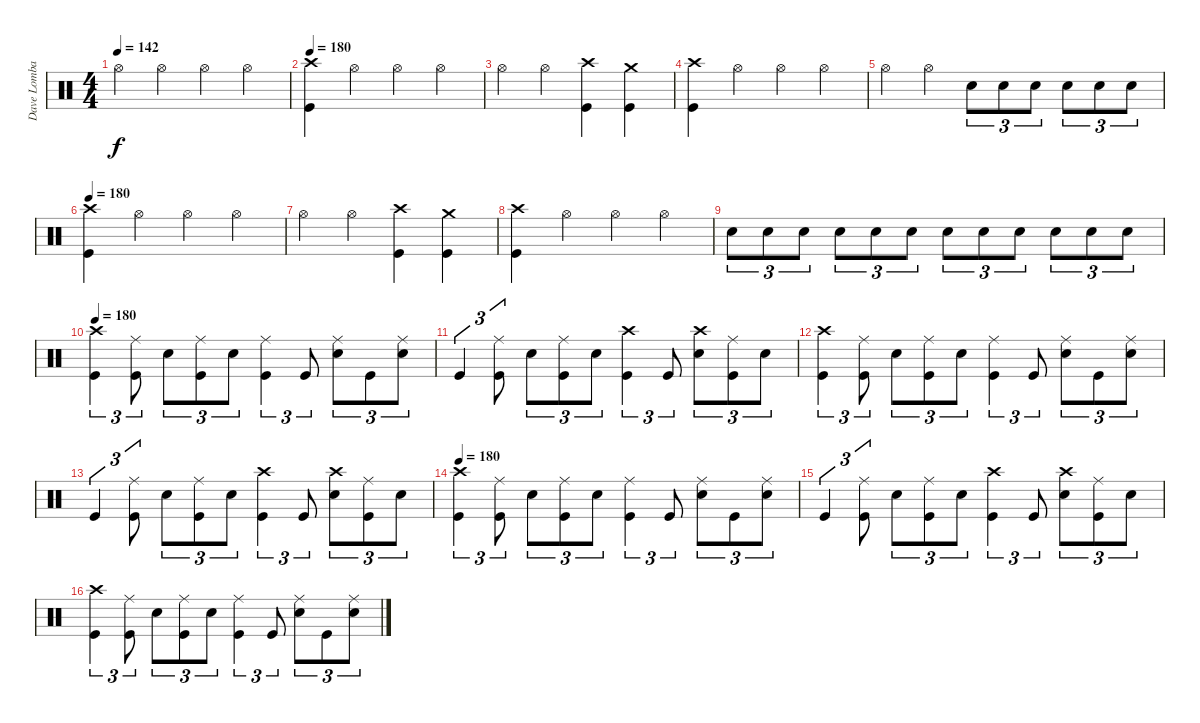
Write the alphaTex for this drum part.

\track ("Dave Lombardo" "Dave Lomba") {instrument percussion}
\staff {score}
\articulation defaults
\ts (4 4)
\tempo 142
\tempo 180
\tempo 142
\clef neutral
\ks c "Hi-Hat (open)".4{dy f} "Hi-Hat (open)".4 "Hi-Hat (open)".4 "Hi-Hat (open)".4
|
\tempo 180
("Kick (hit)" "Crash high (hit)").4 "Hi-Hat (open)".4 "Hi-Hat (open)".4 "Hi-Hat (open)".4 |
"Hi-Hat (open)".4 "Hi-Hat (open)".4 ("Kick (hit)" "Crash high (hit)").4 ("Kick (hit)" "Crash medium (hit)").4 |
("Crash high (hit)" "Kick (hit)").4 "Hi-Hat (open)".4 "Hi-Hat (open)".4 "Hi-Hat (open)".4 |
"Hi-Hat (open)".4 "Hi-Hat (open)".4 "Snare (hit) 2".8{tu (3 2)} "Snare (hit) 2".8{tu (3 2)} "Snare (hit) 2".8{tu (3 2)} "Snare (hit) 2".8{tu (3 2)} "Snare (hit) 2".8{tu (3 2)} "Snare (hit) 2".8{tu (3 2)} |
\tempo 180
("Kick (hit)" "Crash high (hit)").4 "Hi-Hat (open)".4 "Hi-Hat (open)".4 "Hi-Hat (open)".4 |
"Hi-Hat (open)".4 "Hi-Hat (open)".4 ("Kick (hit)" "Crash high (hit)").4 ("Kick (hit)" "Crash medium (hit)").4 |
("Kick (hit)" "Crash high (hit)").4 "Hi-Hat (open)".4 "Hi-Hat (open)".4 "Hi-Hat (open)".4 |
"Snare (hit) 2".8{tu (3 2)} "Snare (hit) 2".8{tu (3 2)} "Snare (hit) 2".8{tu (3 2)} "Snare (hit) 2".8{tu (3 2)} "Snare (hit) 2".8{tu (3 2)} "Snare (hit) 2".8{tu (3 2)} "Snare (hit) 2".8{tu (3 2)} "Snare (hit) 2".8{tu (3 2)} "Snare (hit) 2".8{tu (3 2)} "Snare (hit) 2".8{tu (3 2)} "Snare (hit) 2".8{tu (3 2)} "Snare (hit) 2".8{tu (3 2)} |
\tempo 180
("Crash high (hit)" "Kick (hit)").4{tu (3 2)} ("Ride (middle)" "Kick (hit)").8{tu (3 2)} "Snare (hit) 2".8{tu (3 2)} ("Ride (middle)" "Kick (hit)").8{tu (3 2)} "Snare (hit) 2".8{tu (3 2)} ("Ride (middle)" "Kick (hit)").4{tu (3 2)} "Kick (hit)".8{tu (3 2)} ("Ride (middle)" "Snare (hit) 2").8{tu (3 2)} "Kick (hit)".8{tu (3 2)} ("Ride (middle)" "Snare (hit) 2").8{tu (3 2)} |
"Kick (hit)".4{tu (3 2)} ("Ride (middle)" "Kick (hit)").8{tu (3 2)} "Snare (hit) 2".8{tu (3 2)} ("Ride (middle)" "Kick (hit)").8{tu (3 2)} "Snare (hit) 2".8{tu (3 2)} ("Crash high (hit)" "Kick (hit)").4{tu (3 2)} "Kick (hit)".8{tu (3 2)} ("Crash high (hit)" "Snare (hit) 2").8{tu (3 2)} ("Ride (middle)" "Kick (hit)").8{tu (3 2)} "Snare (hit) 2".8{tu (3 2)} |
("Crash high (hit)" "Kick (hit)").4{tu (3 2)} ("Ride (middle)" "Kick (hit)").8{tu (3 2)} "Snare (hit) 2".8{tu (3 2)} ("Ride (middle)" "Kick (hit)").8{tu (3 2)} "Snare (hit) 2".8{tu (3 2)} ("Ride (middle)" "Kick (hit)").4{tu (3 2)} "Kick (hit)".8{tu (3 2)} ("Ride (middle)" "Snare (hit) 2").8{tu (3 2)} "Kick (hit)".8{tu (3 2)} ("Ride (middle)" "Snare (hit) 2").8{tu (3 2)} |
"Kick (hit)".4{tu (3 2)} ("Ride (middle)" "Kick (hit)").8{tu (3 2)} "Snare (hit) 2".8{tu (3 2)} ("Ride (middle)" "Kick (hit)").8{tu (3 2)} "Snare (hit) 2".8{tu (3 2)} ("Crash high (hit)" "Kick (hit)").4{tu (3 2)} "Kick (hit)".8{tu (3 2)} ("Crash high (hit)" "Snare (hit) 2").8{tu (3 2)} ("Ride (middle)" "Kick (hit)").8{tu (3 2)} "Snare (hit) 2".8{tu (3 2)} |
\tempo 180
("Crash high (hit)" "Kick (hit)").4{tu (3 2)} ("Ride (middle)" "Kick (hit)").8{tu (3 2)} "Snare (hit) 2".8{tu (3 2)} ("Ride (middle)" "Kick (hit)").8{tu (3 2)} "Snare (hit) 2".8{tu (3 2)} ("Ride (middle)" "Kick (hit)").4{tu (3 2)} "Kick (hit)".8{tu (3 2)} ("Ride (middle)" "Snare (hit) 2").8{tu (3 2)} "Kick (hit)".8{tu (3 2)} ("Ride (middle)" "Snare (hit) 2").8{tu (3 2)} |
"Kick (hit)".4{tu (3 2)} ("Ride (middle)" "Kick (hit)").8{tu (3 2)} "Snare (hit) 2".8{tu (3 2)} ("Ride (middle)" "Kick (hit)").8{tu (3 2)} "Snare (hit) 2".8{tu (3 2)} ("Crash high (hit)" "Kick (hit)").4{tu (3 2)} "Kick (hit)".8{tu (3 2)} ("Crash high (hit)" "Snare (hit) 2").8{tu (3 2)} ("Ride (middle)" "Kick (hit)").8{tu (3 2)} "Snare (hit) 2".8{tu (3 2)} |
("Crash high (hit)" "Kick (hit)").4{tu (3 2)} ("Ride (middle)" "Kick (hit)").8{tu (3 2)} "Snare (hit) 2".8{tu (3 2)} ("Ride (middle)" "Kick (hit)").8{tu (3 2)} "Snare (hit) 2".8{tu (3 2)} ("Ride (middle)" "Kick (hit)").4{tu (3 2)} "Kick (hit)".8{tu (3 2)} ("Ride (middle)" "Snare (hit) 2").8{tu (3 2)} "Kick (hit)".8{tu (3 2)} ("Ride (middle)" "Snare (hit) 2").8{tu (3 2)}
